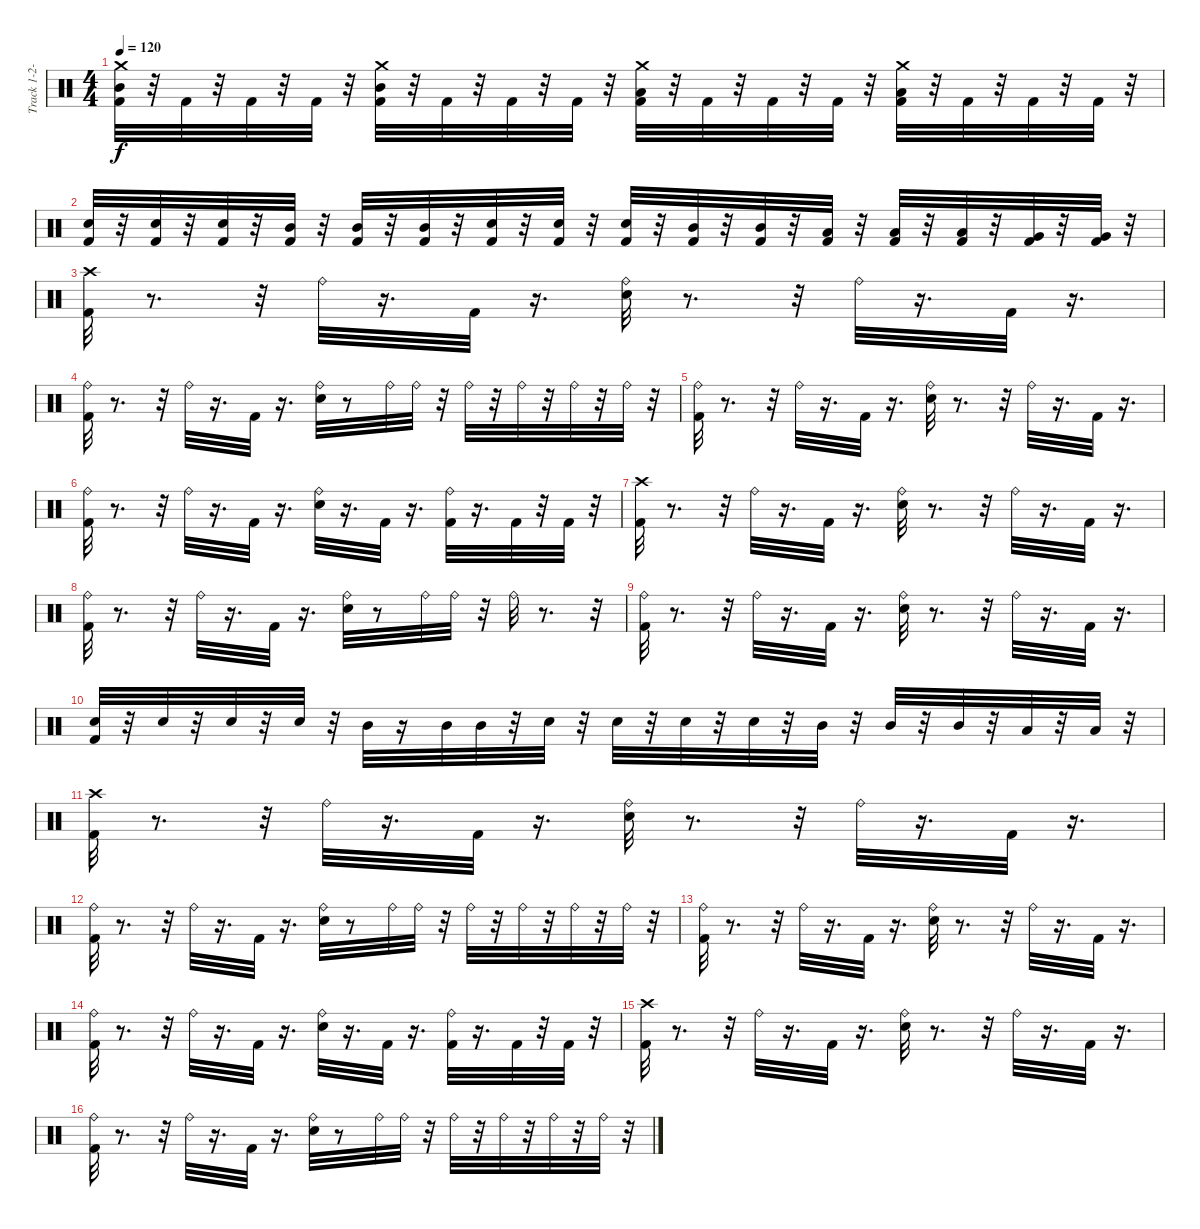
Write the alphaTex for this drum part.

\track ("Track 1-2-3-4" "Track 1-2-") {instrument percussion}
\staff {score}
\articulation defaults
\ts (4 4)
\tempo 120
\clef neutral
\ks c
("Crash medium (hit)" "Kick (hit) 2" "Mid Tom (hit)").32{dy f} r.32 "Kick (hit) 2".32 r.32 "Kick (hit) 2".32 r.32 "Kick (hit) 2".32 r.32 ("Crash medium (hit)" "Kick (hit) 2" "Mid Tom (hit)").32 r.32 "Kick (hit) 2".32 r.32 "Kick (hit) 2".32 r.32 "Kick (hit) 2".32 r.32 ("Crash medium (hit)" "Kick (hit) 2" "Low Tom (hit)").32 r.32 "Kick (hit) 2".32 r.32 "Kick (hit) 2".32 r.32 "Kick (hit) 2".32 r.32 ("Crash medium (hit)" "Kick (hit) 2" "Low Tom (hit)").32 r.32 "Kick (hit) 2".32 r.32 "Kick (hit) 2".32 r.32 "Kick (hit) 2".32 r.32 |
("Kick (hit) 2" "Electric Snare (hit)").32 r.32 ("Kick (hit) 2" "Electric Snare (hit)").32 r.32 ("Kick (hit) 2" "Electric Snare (hit)").32 r.32 ("Kick (hit) 2" "Mid Tom (hit)").32 r.32 ("Kick (hit) 2" "Mid Tom (hit)").32 r.32 ("Kick (hit) 2" "Mid Tom (hit)").32 r.32 ("Kick (hit) 2" "Electric Snare (hit)").32 r.32 ("Kick (hit) 2" "Electric Snare (hit)").32 r.32 ("Kick (hit) 2" "Electric Snare (hit)").32 r.32 ("Kick (hit) 2" "Mid Tom (hit)").32 r.32 ("Kick (hit) 2" "Mid Tom (hit)").32 r.32 ("Kick (hit) 2" "Low Tom (hit)").32 r.32 ("Kick (hit) 2" "Low Tom (hit)").32 r.32 ("Kick (hit) 2" "Low Tom (hit)").32 r.32 ("Kick (hit) 2" "Very Low Tom (hit)").32 r.32 ("Kick (hit) 2" "Very Low Tom (hit)").32 r.32 |
("Crash high (hit)" "Kick (hit) 2").32 r.8{d} r.32 "Ride (bell)".32 r.16{d} "Kick (hit) 2".32 r.16{d} ("Ride (bell)" "Electric Snare (hit)").32 r.8{d} r.32 "Ride (bell)".32 r.16{d} "Kick (hit) 2".32 r.16{d} |
("Ride (bell)" "Kick (hit) 2").32 r.8{d} r.32 "Ride (bell)".32 r.16{d} "Kick (hit) 2".32 r.16{d} ("Ride (bell)" "Electric Snare (hit)").32 r.8 "Ride (bell)".32 "Ride (bell)".32 r.32 "Ride (bell)".32 r.32 "Ride (bell)".32 r.32 "Ride (bell)".32 r.32 "Ride (bell)".32 r.32 |
("Ride (bell)" "Kick (hit) 2").32 r.8{d} r.32 "Ride (bell)".32 r.16{d} "Kick (hit) 2".32 r.16{d} ("Ride (bell)" "Electric Snare (hit)").32 r.8{d} r.32 "Ride (bell)".32 r.16{d} "Kick (hit) 2".32 r.16{d} |
("Ride (bell)" "Kick (hit) 2").32 r.8{d} r.32 "Ride (bell)".32 r.16{d} "Kick (hit) 2".32 r.16{d} ("Ride (bell)" "Electric Snare (hit)").32 r.16{d} "Kick (hit) 2".32 r.16{d} ("Ride (bell)" "Kick (hit) 2").32 r.16{d} "Kick (hit) 2".32 r.32 "Kick (hit) 2".32 r.32 |
("Crash high (hit)" "Kick (hit) 2").32 r.8{d} r.32 "Ride (bell)".32 r.16{d} "Kick (hit) 2".32 r.16{d} ("Ride (bell)" "Electric Snare (hit)").32 r.8{d} r.32 "Ride (bell)".32 r.16{d} "Kick (hit) 2".32 r.16{d} |
("Ride (bell)" "Kick (hit) 2").32 r.8{d} r.32 "Ride (bell)".32 r.16{d} "Kick (hit) 2".32 r.16{d} ("Ride (bell)" "Electric Snare (hit)").32 r.8 "Ride (bell)".32 "Ride (bell)".32 r.32 "Ride (bell)".32 r.8{d} r.32 |
("Ride (bell)" "Kick (hit) 2").32 r.8{d} r.32 "Ride (bell)".32 r.16{d} "Kick (hit) 2".32 r.16{d} ("Ride (bell)" "Electric Snare (hit)").32 r.8{d} r.32 "Ride (bell)".32 r.16{d} "Kick (hit) 2".32 r.16{d} |
("Kick (hit) 2" "Electric Snare (hit)").32 r.32 "Electric Snare (hit)".32 r.32 "Electric Snare (hit)".32 r.32 "Electric Snare (hit)".32 r.32 "Mid Tom (hit)".32 r.16 "Mid Tom (hit)".32 "Mid Tom (hit)".32 r.32 "Electric Snare (hit)".32 r.32 "Electric Snare (hit)".32 r.32 "Electric Snare (hit)".32 r.32 "Electric Snare (hit)".32 r.32 "Mid Tom (hit)".32 r.32 "Mid Tom (hit)".32 r.32 "Mid Tom (hit)".32 r.32 "Low Tom (hit)".32 r.32 "Low Tom (hit)".32 r.32 |
("Crash high (hit)" "Kick (hit) 2").32 r.8{d} r.32 "Ride (bell)".32 r.16{d} "Kick (hit) 2".32 r.16{d} ("Ride (bell)" "Electric Snare (hit)").32 r.8{d} r.32 "Ride (bell)".32 r.16{d} "Kick (hit) 2".32 r.16{d} |
("Ride (bell)" "Kick (hit) 2").32 r.8{d} r.32 "Ride (bell)".32 r.16{d} "Kick (hit) 2".32 r.16{d} ("Ride (bell)" "Electric Snare (hit)").32 r.8 "Ride (bell)".32 "Ride (bell)".32 r.32 "Ride (bell)".32 r.32 "Ride (bell)".32 r.32 "Ride (bell)".32 r.32 "Ride (bell)".32 r.32 |
("Ride (bell)" "Kick (hit) 2").32 r.8{d} r.32 "Ride (bell)".32 r.16{d} "Kick (hit) 2".32 r.16{d} ("Ride (bell)" "Electric Snare (hit)").32 r.8{d} r.32 "Ride (bell)".32 r.16{d} "Kick (hit) 2".32 r.16{d} |
("Ride (bell)" "Kick (hit) 2").32 r.8{d} r.32 "Ride (bell)".32 r.16{d} "Kick (hit) 2".32 r.16{d} ("Ride (bell)" "Electric Snare (hit)").32 r.16{d} "Kick (hit) 2".32 r.16{d} ("Ride (bell)" "Kick (hit) 2").32 r.16{d} "Kick (hit) 2".32 r.32 "Kick (hit) 2".32 r.32 |
("Crash high (hit)" "Kick (hit) 2").32 r.8{d} r.32 "Ride (bell)".32 r.16{d} "Kick (hit) 2".32 r.16{d} ("Ride (bell)" "Electric Snare (hit)").32 r.8{d} r.32 "Ride (bell)".32 r.16{d} "Kick (hit) 2".32 r.16{d} |
("Ride (bell)" "Kick (hit) 2").32 r.8{d} r.32 "Ride (bell)".32 r.16{d} "Kick (hit) 2".32 r.16{d} ("Ride (bell)" "Electric Snare (hit)").32 r.8 "Ride (bell)".32 "Ride (bell)".32 r.32 "Ride (bell)".32 r.32 "Ride (bell)".32 r.32 "Ride (bell)".32 r.32 "Ride (bell)".32 r.32
